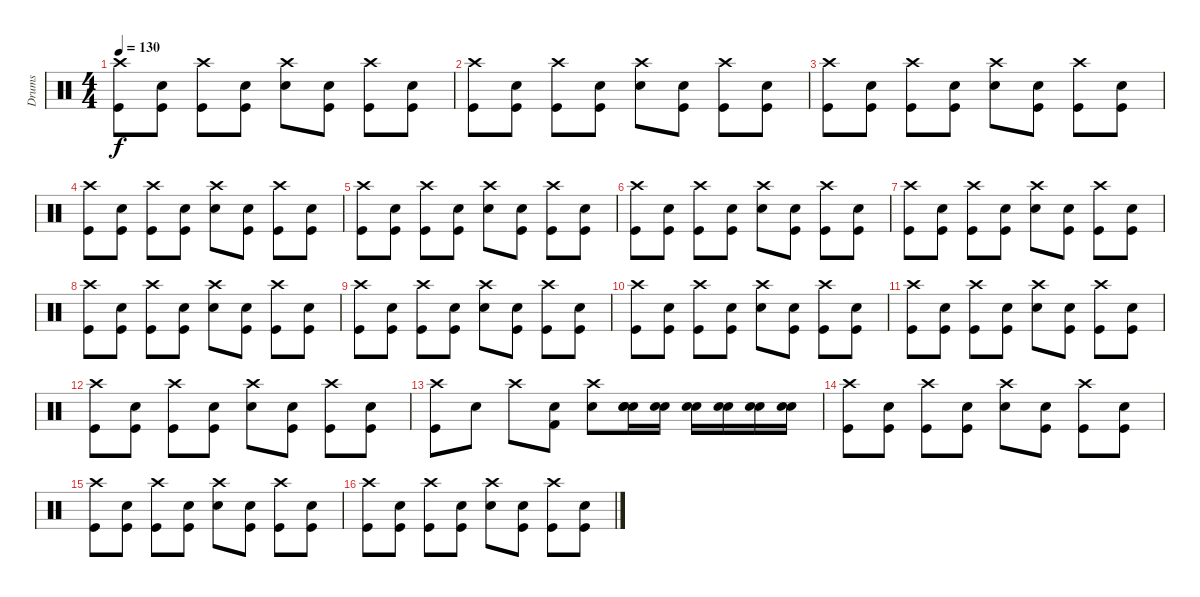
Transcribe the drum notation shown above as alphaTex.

\track ("Drums" "Drums") {instrument percussion}
\staff {score}
\articulation defaults
\ts (4 4)
\tempo 130
\clef neutral
\ks c
("Crash high (hit)" "Kick (hit)").8{dy f} ("Snare (hit)"{x} "Kick (hit)").8 ("Crash high (hit)" "Kick (hit)").8 ("Snare (hit)"{x} "Kick (hit)").8 ("Crash high (hit)" "Electric Snare (hit)").8 ("Snare (hit)"{x} "Kick (hit)").8 ("Crash high (hit)" "Kick (hit)").8 ("Snare (hit)"{x} "Kick (hit)").8 |
("Crash high (hit)" "Kick (hit)").8 ("Snare (hit)"{x} "Kick (hit)").8 ("Crash high (hit)" "Kick (hit)").8 ("Snare (hit)"{x} "Kick (hit)").8 ("Crash high (hit)" "Electric Snare (hit)").8 ("Snare (hit)"{x} "Kick (hit)").8 ("Crash high (hit)" "Kick (hit)").8 ("Snare (hit)"{x} "Kick (hit)").8 |
("Crash high (hit)" "Kick (hit)").8 ("Snare (hit)"{x} "Kick (hit)").8 ("Crash high (hit)" "Kick (hit)").8 ("Snare (hit)"{x} "Kick (hit)").8 ("Crash high (hit)" "Electric Snare (hit)").8 ("Snare (hit)"{x} "Kick (hit)").8 ("Crash high (hit)" "Kick (hit)").8 ("Snare (hit)"{x} "Kick (hit)").8 |
("Crash high (hit)" "Kick (hit)").8 ("Snare (hit)"{x} "Kick (hit)").8 ("Crash high (hit)" "Kick (hit)").8 ("Snare (hit)"{x} "Kick (hit)").8 ("Crash high (hit)" "Electric Snare (hit)").8 ("Snare (hit)"{x} "Kick (hit)").8 ("Crash high (hit)" "Kick (hit)").8 ("Snare (hit)"{x} "Kick (hit)").8 |
("Crash high (hit)" "Kick (hit)").8 ("Snare (hit)"{x} "Kick (hit)").8 ("Crash high (hit)" "Kick (hit)").8 ("Snare (hit)"{x} "Kick (hit)").8 ("Crash high (hit)" "Electric Snare (hit)").8 ("Snare (hit)"{x} "Kick (hit)").8 ("Crash high (hit)" "Kick (hit)").8 ("Snare (hit)"{x} "Kick (hit)").8 |
("Crash high (hit)" "Kick (hit)").8 ("Snare (hit)"{x} "Kick (hit)").8 ("Crash high (hit)" "Kick (hit)").8 ("Snare (hit)"{x} "Kick (hit)").8 ("Crash high (hit)" "Electric Snare (hit)").8 ("Snare (hit)"{x} "Kick (hit)").8 ("Crash high (hit)" "Kick (hit)").8 ("Snare (hit)"{x} "Kick (hit)").8 |
("Crash high (hit)" "Kick (hit)").8 ("Snare (hit)"{x} "Kick (hit)").8 ("Crash high (hit)" "Kick (hit)").8 ("Snare (hit)"{x} "Kick (hit)").8 ("Crash high (hit)" "Electric Snare (hit)").8 ("Snare (hit)"{x} "Kick (hit)").8 ("Crash high (hit)" "Kick (hit)").8 ("Snare (hit)"{x} "Kick (hit)").8 |
("Crash high (hit)" "Kick (hit)").8 ("Snare (hit)"{x} "Kick (hit)").8 ("Crash high (hit)" "Kick (hit)").8 ("Snare (hit)"{x} "Kick (hit)").8 ("Crash high (hit)" "Electric Snare (hit)").8 ("Snare (hit)"{x} "Kick (hit)").8 ("Crash high (hit)" "Kick (hit)").8 ("Snare (hit)"{x} "Kick (hit)").8 |
("Crash high (hit)" "Kick (hit)").8 ("Snare (hit)"{x} "Kick (hit)").8 ("Crash high (hit)" "Kick (hit)").8 ("Snare (hit)"{x} "Kick (hit)").8 ("Crash high (hit)" "Electric Snare (hit)").8 ("Snare (hit)"{x} "Kick (hit)").8 ("Crash high (hit)" "Kick (hit)").8 ("Snare (hit)"{x} "Kick (hit)").8 |
("Crash high (hit)" "Kick (hit)").8 ("Snare (hit)"{x} "Kick (hit)").8 ("Crash high (hit)" "Kick (hit)").8 ("Snare (hit)"{x} "Kick (hit)").8 ("Crash high (hit)" "Electric Snare (hit)").8 ("Snare (hit)"{x} "Kick (hit)").8 ("Crash high (hit)" "Kick (hit)").8 ("Snare (hit)"{x} "Kick (hit)").8 |
("Crash high (hit)" "Kick (hit)").8 ("Snare (hit)"{x} "Kick (hit)").8 ("Crash high (hit)" "Kick (hit)").8 ("Snare (hit)"{x} "Kick (hit)").8 ("Crash high (hit)" "Electric Snare (hit)").8 ("Snare (hit)"{x} "Kick (hit)").8 ("Crash high (hit)" "Kick (hit)").8 ("Snare (hit)"{x} "Kick (hit)").8 |
("Crash high (hit)" "Kick (hit)").8 ("Snare (hit)"{x} "Kick (hit)").8 ("Crash high (hit)" "Kick (hit)").8 ("Snare (hit)"{x} "Kick (hit)").8 ("Crash high (hit)" "Electric Snare (hit)").8 ("Snare (hit)"{x} "Kick (hit)").8 ("Crash high (hit)" "Kick (hit)").8 ("Snare (hit)"{x} "Kick (hit)").8 |
("Crash high (hit)" "Kick (hit)").8 "Snare (hit)"{x}.8 "Crash high (hit)".8 ("Snare (hit)"{x} "Kick (hit) 2").8 ("Crash high (hit)" "Electric Snare (hit)").8 ("Snare (hit)"{x} "Electric Snare (hit)" "Electric Snare (hit)").16 ("Electric Snare (hit)" "Electric Snare (hit)").16 ("Electric Snare (hit)" "Electric Snare (hit)").16 ("Electric Snare (hit)" "Electric Snare (hit)").16 ("Electric Snare (hit)" "Electric Snare (hit)").16 ("Electric Snare (hit)" "Electric Snare (hit)").16 |
("Crash high (hit)" "Kick (hit)").8 ("Snare (hit)"{x} "Kick (hit)").8 ("Crash high (hit)" "Kick (hit)").8 ("Snare (hit)"{x} "Kick (hit)").8 ("Crash high (hit)" "Electric Snare (hit)").8 ("Snare (hit)"{x} "Kick (hit)").8 ("Crash high (hit)" "Kick (hit)").8 ("Snare (hit)"{x} "Kick (hit)").8 |
("Crash high (hit)" "Kick (hit)").8 ("Snare (hit)"{x} "Kick (hit)").8 ("Crash high (hit)" "Kick (hit)").8 ("Snare (hit)"{x} "Kick (hit)").8 ("Crash high (hit)" "Electric Snare (hit)").8 ("Snare (hit)"{x} "Kick (hit)").8 ("Crash high (hit)" "Kick (hit)").8 ("Snare (hit)"{x} "Kick (hit)").8 |
("Crash high (hit)" "Kick (hit)").8 ("Snare (hit)"{x} "Kick (hit)").8 ("Crash high (hit)" "Kick (hit)").8 ("Snare (hit)"{x} "Kick (hit)").8 ("Crash high (hit)" "Electric Snare (hit)").8 ("Snare (hit)"{x} "Kick (hit)").8 ("Crash high (hit)" "Kick (hit)").8 ("Snare (hit)"{x} "Kick (hit)").8
